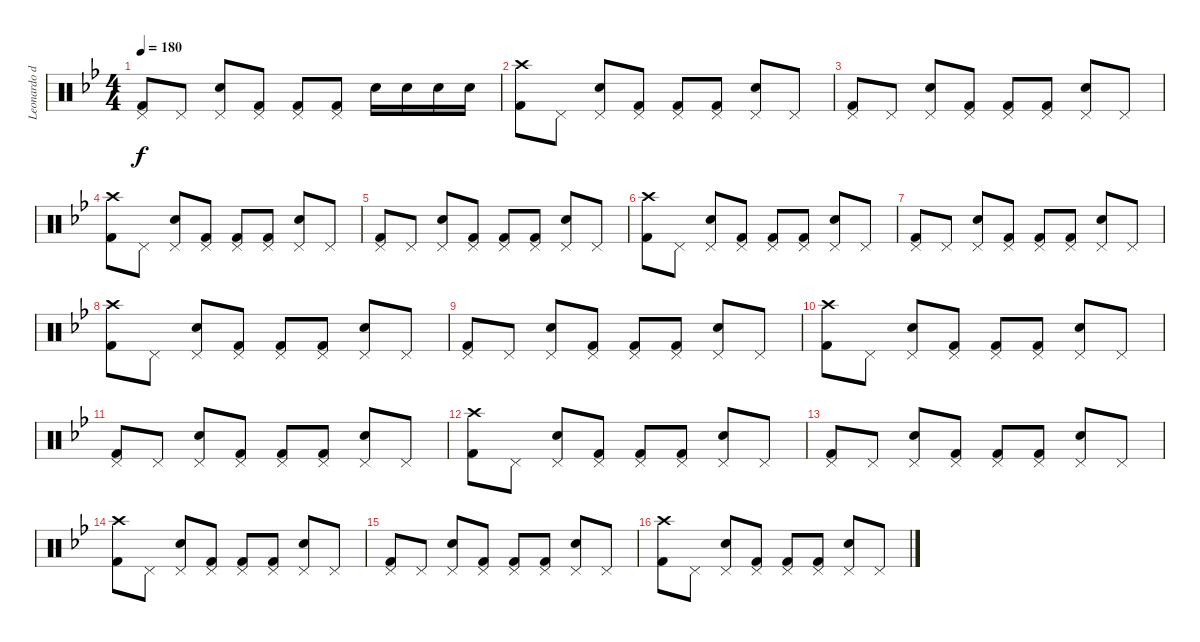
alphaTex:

\track ("Leonardo de Cecco" "Leonardo d") {instrument percussion}
\staff {score}
\articulation defaults
\ts (4 4)
\tempo 180
\clef neutral
\ks bb
("Pedal Hi-Hat (hit)" "Kick (hit) 2").8{dy f} "Pedal Hi-Hat (hit)".8 ("Pedal Hi-Hat (hit)" "Snare (hit) 2").8 ("Pedal Hi-Hat (hit)" "Kick (hit) 2").8 ("Pedal Hi-Hat (hit)" "Kick (hit) 2").8 ("Pedal Hi-Hat (hit)" "Kick (hit) 2").8 "Snare (hit) 2".16 "Snare (hit) 2".16 "Snare (hit) 2".16 "Snare (hit) 2".16 |
("Crash high (hit)" "Kick (hit) 2").8 "Pedal Hi-Hat (hit)".8 ("Pedal Hi-Hat (hit)" "Snare (hit) 2").8 ("Pedal Hi-Hat (hit)" "Kick (hit) 2").8 ("Pedal Hi-Hat (hit)" "Kick (hit) 2").8 ("Pedal Hi-Hat (hit)" "Kick (hit) 2").8 ("Pedal Hi-Hat (hit)" "Snare (hit) 2").8 "Pedal Hi-Hat (hit)".8 |
("Pedal Hi-Hat (hit)" "Kick (hit) 2").8 "Pedal Hi-Hat (hit)".8 ("Pedal Hi-Hat (hit)" "Snare (hit) 2").8 ("Pedal Hi-Hat (hit)" "Kick (hit) 2").8 ("Pedal Hi-Hat (hit)" "Kick (hit) 2").8 ("Pedal Hi-Hat (hit)" "Kick (hit) 2").8 ("Pedal Hi-Hat (hit)" "Snare (hit) 2").8 "Pedal Hi-Hat (hit)".8 |
("Crash high (hit)" "Kick (hit) 2").8 "Pedal Hi-Hat (hit)".8 ("Pedal Hi-Hat (hit)" "Snare (hit) 2").8 ("Pedal Hi-Hat (hit)" "Kick (hit) 2").8 ("Pedal Hi-Hat (hit)" "Kick (hit) 2").8 ("Pedal Hi-Hat (hit)" "Kick (hit) 2").8 ("Pedal Hi-Hat (hit)" "Snare (hit) 2").8 "Pedal Hi-Hat (hit)".8 |
("Pedal Hi-Hat (hit)" "Kick (hit) 2").8 "Pedal Hi-Hat (hit)".8 ("Pedal Hi-Hat (hit)" "Snare (hit) 2").8 ("Pedal Hi-Hat (hit)" "Kick (hit) 2").8 ("Pedal Hi-Hat (hit)" "Kick (hit) 2").8 ("Pedal Hi-Hat (hit)" "Kick (hit) 2").8 ("Pedal Hi-Hat (hit)" "Snare (hit) 2").8 "Pedal Hi-Hat (hit)".8 |
("Crash high (hit)" "Kick (hit) 2").8 "Pedal Hi-Hat (hit)".8 ("Pedal Hi-Hat (hit)" "Snare (hit) 2").8 ("Pedal Hi-Hat (hit)" "Kick (hit) 2").8 ("Pedal Hi-Hat (hit)" "Kick (hit) 2").8 ("Pedal Hi-Hat (hit)" "Kick (hit) 2").8 ("Pedal Hi-Hat (hit)" "Snare (hit) 2").8 "Pedal Hi-Hat (hit)".8 |
("Pedal Hi-Hat (hit)" "Kick (hit) 2").8 "Pedal Hi-Hat (hit)".8 ("Pedal Hi-Hat (hit)" "Snare (hit) 2").8 ("Pedal Hi-Hat (hit)" "Kick (hit) 2").8 ("Pedal Hi-Hat (hit)" "Kick (hit) 2").8 ("Pedal Hi-Hat (hit)" "Kick (hit) 2").8 ("Pedal Hi-Hat (hit)" "Snare (hit) 2").8 "Pedal Hi-Hat (hit)".8 |
("Crash high (hit)" "Kick (hit) 2").8 "Pedal Hi-Hat (hit)".8 ("Pedal Hi-Hat (hit)" "Snare (hit) 2").8 ("Pedal Hi-Hat (hit)" "Kick (hit) 2").8 ("Pedal Hi-Hat (hit)" "Kick (hit) 2").8 ("Pedal Hi-Hat (hit)" "Kick (hit) 2").8 ("Pedal Hi-Hat (hit)" "Snare (hit) 2").8 "Pedal Hi-Hat (hit)".8 |
("Pedal Hi-Hat (hit)" "Kick (hit) 2").8 "Pedal Hi-Hat (hit)".8 ("Pedal Hi-Hat (hit)" "Snare (hit) 2").8 ("Pedal Hi-Hat (hit)" "Kick (hit) 2").8 ("Pedal Hi-Hat (hit)" "Kick (hit) 2").8 ("Pedal Hi-Hat (hit)" "Kick (hit) 2").8 ("Pedal Hi-Hat (hit)" "Snare (hit) 2").8 "Pedal Hi-Hat (hit)".8 |
("Crash high (hit)" "Kick (hit) 2").8 "Pedal Hi-Hat (hit)".8 ("Pedal Hi-Hat (hit)" "Snare (hit) 2").8 ("Pedal Hi-Hat (hit)" "Kick (hit) 2").8 ("Pedal Hi-Hat (hit)" "Kick (hit) 2").8 ("Pedal Hi-Hat (hit)" "Kick (hit) 2").8 ("Pedal Hi-Hat (hit)" "Snare (hit) 2").8 "Pedal Hi-Hat (hit)".8 |
("Pedal Hi-Hat (hit)" "Kick (hit) 2").8 "Pedal Hi-Hat (hit)".8 ("Pedal Hi-Hat (hit)" "Snare (hit) 2").8 ("Pedal Hi-Hat (hit)" "Kick (hit) 2").8 ("Pedal Hi-Hat (hit)" "Kick (hit) 2").8 ("Pedal Hi-Hat (hit)" "Kick (hit) 2").8 ("Pedal Hi-Hat (hit)" "Snare (hit) 2").8 "Pedal Hi-Hat (hit)".8 |
("Crash high (hit)" "Kick (hit) 2").8 "Pedal Hi-Hat (hit)".8 ("Pedal Hi-Hat (hit)" "Snare (hit) 2").8 ("Pedal Hi-Hat (hit)" "Kick (hit) 2").8 ("Pedal Hi-Hat (hit)" "Kick (hit) 2").8 ("Pedal Hi-Hat (hit)" "Kick (hit) 2").8 ("Pedal Hi-Hat (hit)" "Snare (hit) 2").8 "Pedal Hi-Hat (hit)".8 |
("Pedal Hi-Hat (hit)" "Kick (hit) 2").8 "Pedal Hi-Hat (hit)".8 ("Pedal Hi-Hat (hit)" "Snare (hit) 2").8 ("Pedal Hi-Hat (hit)" "Kick (hit) 2").8 ("Pedal Hi-Hat (hit)" "Kick (hit) 2").8 ("Pedal Hi-Hat (hit)" "Kick (hit) 2").8 ("Pedal Hi-Hat (hit)" "Snare (hit) 2").8 "Pedal Hi-Hat (hit)".8 |
("Crash high (hit)" "Kick (hit) 2").8 "Pedal Hi-Hat (hit)".8 ("Pedal Hi-Hat (hit)" "Snare (hit) 2").8 ("Pedal Hi-Hat (hit)" "Kick (hit) 2").8 ("Pedal Hi-Hat (hit)" "Kick (hit) 2").8 ("Pedal Hi-Hat (hit)" "Kick (hit) 2").8 ("Pedal Hi-Hat (hit)" "Snare (hit) 2").8 "Pedal Hi-Hat (hit)".8 |
("Pedal Hi-Hat (hit)" "Kick (hit) 2").8 "Pedal Hi-Hat (hit)".8 ("Pedal Hi-Hat (hit)" "Snare (hit) 2").8 ("Pedal Hi-Hat (hit)" "Kick (hit) 2").8 ("Pedal Hi-Hat (hit)" "Kick (hit) 2").8 ("Pedal Hi-Hat (hit)" "Kick (hit) 2").8 ("Pedal Hi-Hat (hit)" "Snare (hit) 2").8 "Pedal Hi-Hat (hit)".8 |
("Crash high (hit)" "Kick (hit) 2").8 "Pedal Hi-Hat (hit)".8 ("Pedal Hi-Hat (hit)" "Snare (hit) 2").8 ("Pedal Hi-Hat (hit)" "Kick (hit) 2").8 ("Pedal Hi-Hat (hit)" "Kick (hit) 2").8 ("Pedal Hi-Hat (hit)" "Kick (hit) 2").8 ("Pedal Hi-Hat (hit)" "Snare (hit) 2").8 "Pedal Hi-Hat (hit)".8
